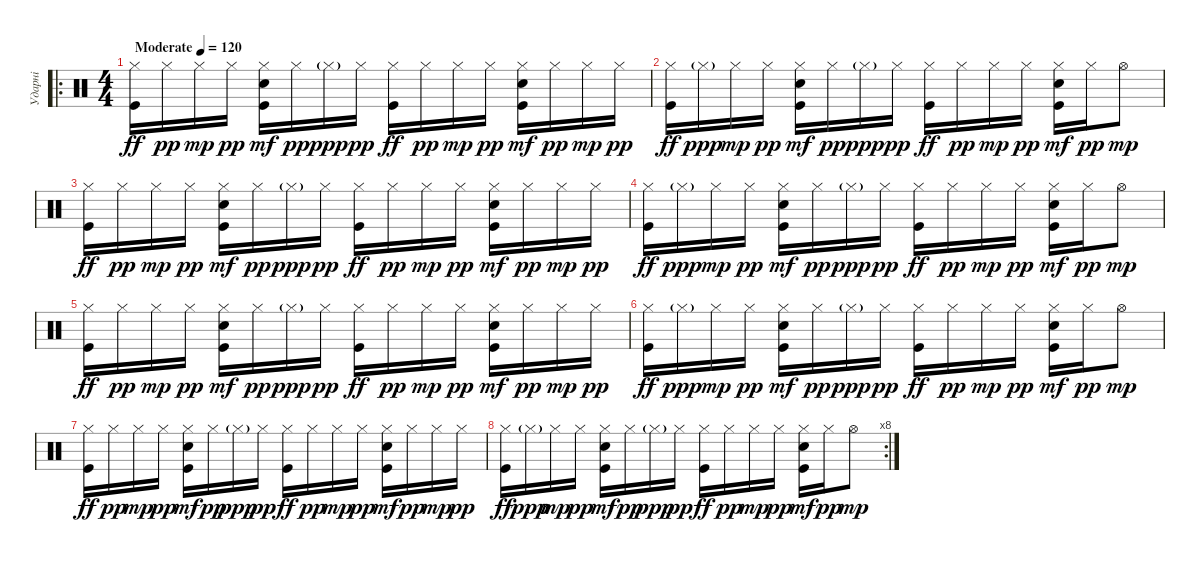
\track ("Ударні" "Ударні") {instrument percussion}
\staff {score}
\articulation defaults
\ro
\ts (4 4)
\tempo (120 "Moderate")
\clef neutral
\ks c
("Hi-Hat (closed)" "Kick (hit)").16{dy ff} "Hi-Hat (closed)".16{dy pp} "Hi-Hat (closed)".16{dy mp} "Hi-Hat (closed)".16{dy pp} ("Hi-Hat (closed)" "Snare (hit) 2" "Kick (hit)").16{dy mf} "Hi-Hat (closed)".16{dy pp} "Hi-Hat (closed)"{g}.16{dy ppp} "Hi-Hat (closed)".16{dy pp} ("Hi-Hat (closed)" "Kick (hit)").16{dy ff} "Hi-Hat (closed)".16{dy pp} "Hi-Hat (closed)".16{dy mp} "Hi-Hat (closed)".16{dy pp} ("Hi-Hat (closed)" "Snare (hit) 2" "Kick (hit)").16{dy mf} "Hi-Hat (closed)".16{dy pp} "Hi-Hat (closed)".16{dy mp} "Hi-Hat (closed)".16{dy pp} |
("Hi-Hat (closed)" "Kick (hit)").16{dy ff} "Hi-Hat (closed)"{g}.16{dy ppp} "Hi-Hat (closed)".16{dy mp} "Hi-Hat (closed)".16{dy pp} ("Hi-Hat (closed)" "Snare (hit) 2" "Kick (hit)").16{dy mf} "Hi-Hat (closed)".16{dy pp} "Hi-Hat (closed)"{g}.16{dy ppp} "Hi-Hat (closed)".16{dy pp} ("Hi-Hat (closed)" "Kick (hit)").16{dy ff} "Hi-Hat (closed)".16{dy pp} "Hi-Hat (closed)".16{dy mp} "Hi-Hat (closed)".16{dy pp} ("Hi-Hat (closed)" "Snare (hit) 2" "Kick (hit)").16{dy mf} "Hi-Hat (closed)".16{dy pp} "Hi-Hat (open)".8{dy mp} |
("Hi-Hat (closed)" "Kick (hit)").16{dy ff} "Hi-Hat (closed)".16{dy pp} "Hi-Hat (closed)".16{dy mp} "Hi-Hat (closed)".16{dy pp} ("Hi-Hat (closed)" "Snare (hit) 2" "Kick (hit)").16{dy mf} "Hi-Hat (closed)".16{dy pp} "Hi-Hat (closed)"{g}.16{dy ppp} "Hi-Hat (closed)".16{dy pp} ("Hi-Hat (closed)" "Kick (hit)").16{dy ff} "Hi-Hat (closed)".16{dy pp} "Hi-Hat (closed)".16{dy mp} "Hi-Hat (closed)".16{dy pp} ("Hi-Hat (closed)" "Snare (hit) 2" "Kick (hit)").16{dy mf} "Hi-Hat (closed)".16{dy pp} "Hi-Hat (closed)".16{dy mp} "Hi-Hat (closed)".16{dy pp} |
("Hi-Hat (closed)" "Kick (hit)").16{dy ff} "Hi-Hat (closed)"{g}.16{dy ppp} "Hi-Hat (closed)".16{dy mp} "Hi-Hat (closed)".16{dy pp} ("Hi-Hat (closed)" "Snare (hit) 2" "Kick (hit)").16{dy mf} "Hi-Hat (closed)".16{dy pp} "Hi-Hat (closed)"{g}.16{dy ppp} "Hi-Hat (closed)".16{dy pp} ("Hi-Hat (closed)" "Kick (hit)").16{dy ff} "Hi-Hat (closed)".16{dy pp} "Hi-Hat (closed)".16{dy mp} "Hi-Hat (closed)".16{dy pp} ("Hi-Hat (closed)" "Snare (hit) 2" "Kick (hit)").16{dy mf} "Hi-Hat (closed)".16{dy pp} "Hi-Hat (open)".8{dy mp} |
("Hi-Hat (closed)" "Kick (hit)").16{dy ff} "Hi-Hat (closed)".16{dy pp} "Hi-Hat (closed)".16{dy mp} "Hi-Hat (closed)".16{dy pp} ("Hi-Hat (closed)" "Snare (hit) 2" "Kick (hit)").16{dy mf} "Hi-Hat (closed)".16{dy pp} "Hi-Hat (closed)"{g}.16{dy ppp} "Hi-Hat (closed)".16{dy pp} ("Hi-Hat (closed)" "Kick (hit)").16{dy ff} "Hi-Hat (closed)".16{dy pp} "Hi-Hat (closed)".16{dy mp} "Hi-Hat (closed)".16{dy pp} ("Hi-Hat (closed)" "Snare (hit) 2" "Kick (hit)").16{dy mf} "Hi-Hat (closed)".16{dy pp} "Hi-Hat (closed)".16{dy mp} "Hi-Hat (closed)".16{dy pp} |
("Hi-Hat (closed)" "Kick (hit)").16{dy ff} "Hi-Hat (closed)"{g}.16{dy ppp} "Hi-Hat (closed)".16{dy mp} "Hi-Hat (closed)".16{dy pp} ("Hi-Hat (closed)" "Snare (hit) 2" "Kick (hit)").16{dy mf} "Hi-Hat (closed)".16{dy pp} "Hi-Hat (closed)"{g}.16{dy ppp} "Hi-Hat (closed)".16{dy pp} ("Hi-Hat (closed)" "Kick (hit)").16{dy ff} "Hi-Hat (closed)".16{dy pp} "Hi-Hat (closed)".16{dy mp} "Hi-Hat (closed)".16{dy pp} ("Hi-Hat (closed)" "Snare (hit) 2" "Kick (hit)").16{dy mf} "Hi-Hat (closed)".16{dy pp} "Hi-Hat (open)".8{dy mp} |
("Hi-Hat (closed)" "Kick (hit)").16{dy ff} "Hi-Hat (closed)".16{dy pp} "Hi-Hat (closed)".16{dy mp} "Hi-Hat (closed)".16{dy pp} ("Hi-Hat (closed)" "Snare (hit) 2" "Kick (hit)").16{dy mf} "Hi-Hat (closed)".16{dy pp} "Hi-Hat (closed)"{g}.16{dy ppp} "Hi-Hat (closed)".16{dy pp} ("Hi-Hat (closed)" "Kick (hit)").16{dy ff} "Hi-Hat (closed)".16{dy pp} "Hi-Hat (closed)".16{dy mp} "Hi-Hat (closed)".16{dy pp} ("Hi-Hat (closed)" "Snare (hit) 2" "Kick (hit)").16{dy mf} "Hi-Hat (closed)".16{dy pp} "Hi-Hat (closed)".16{dy mp} "Hi-Hat (closed)".16{dy pp} |
\rc 8
("Hi-Hat (closed)" "Kick (hit)").16{dy ff} "Hi-Hat (closed)"{g}.16{dy ppp} "Hi-Hat (closed)".16{dy mp} "Hi-Hat (closed)".16{dy pp} ("Hi-Hat (closed)" "Snare (hit) 2" "Kick (hit)").16{dy mf} "Hi-Hat (closed)".16{dy pp} "Hi-Hat (closed)"{g}.16{dy ppp} "Hi-Hat (closed)".16{dy pp} ("Hi-Hat (closed)" "Kick (hit)").16{dy ff} "Hi-Hat (closed)".16{dy pp} "Hi-Hat (closed)".16{dy mp} "Hi-Hat (closed)".16{dy pp} ("Hi-Hat (closed)" "Snare (hit) 2" "Kick (hit)").16{dy mf} "Hi-Hat (closed)".16{dy pp} "Hi-Hat (open)".8{dy mp}
